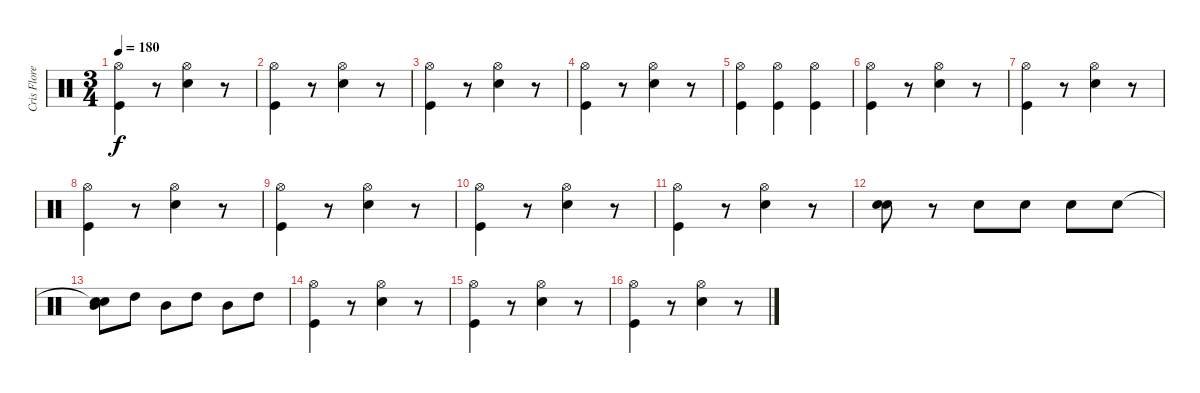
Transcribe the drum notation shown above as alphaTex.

\track ("Cris Flores" "Cris Flore") {instrument percussion}
\staff {score}
\articulation defaults
\ts (3 4)
\tempo 180
\clef neutral
\ks c
("Kick (hit)" "Hi-Hat (open)").4{dy f} r.8 ("Snare (hit) 2" "Hi-Hat (open)").4 r.8 |
("Kick (hit)" "Hi-Hat (open)").4 r.8 ("Snare (hit) 2" "Hi-Hat (open)").4 r.8 |
("Kick (hit)" "Hi-Hat (open)").4 r.8 ("Snare (hit) 2" "Hi-Hat (open)").4 r.8 |
("Kick (hit)" "Hi-Hat (open)").4 r.8 ("Snare (hit) 2" "Hi-Hat (open)").4 r.8 |
("Kick (hit)" "Hi-Hat (open)").4 ("Kick (hit)" "Hi-Hat (open)").4 ("Kick (hit)" "Hi-Hat (open)").4 |
("Kick (hit)" "Hi-Hat (open)").4 r.8 ("Snare (hit) 2" "Hi-Hat (open)").4 r.8 |
("Kick (hit)" "Hi-Hat (open)").4 r.8 ("Snare (hit) 2" "Hi-Hat (open)").4 r.8 |
("Kick (hit)" "Hi-Hat (open)").4 r.8 ("Snare (hit) 2" "Hi-Hat (open)").4 r.8 |
("Kick (hit)" "Hi-Hat (open)").4 r.8 ("Snare (hit) 2" "Hi-Hat (open)").4 r.8 |
("Kick (hit)" "Hi-Hat (open)").4 r.8 ("Snare (hit) 2" "Hi-Hat (open)").4 r.8 |
("Kick (hit)" "Hi-Hat (open)").4 r.8 ("Snare (hit) 2" "Hi-Hat (open)").4 r.8 |
("Electric Snare (hit)" "Snare (hit) 2").8 r.8 "Snare (hit) 2".8 "Snare (hit) 2".8 "Snare (hit) 2".8 "Snare (hit) 2".8 |
("Snare (hit)"{t} "Mid Tom (hit)" "Snare (hit)").8 "High Tom (hit)".8 "Mid Tom (hit)".8 "High Tom (hit)".8 "Mid Tom (hit)".8 "High Tom (hit)".8 |
("Kick (hit)" "Hi-Hat (open)").4 r.8 ("Snare (hit) 2" "Hi-Hat (open)").4 r.8 |
("Kick (hit)" "Hi-Hat (open)").4 r.8 ("Snare (hit) 2" "Hi-Hat (open)").4 r.8 |
("Kick (hit)" "Hi-Hat (open)").4 r.8 ("Snare (hit) 2" "Hi-Hat (open)").4 r.8
